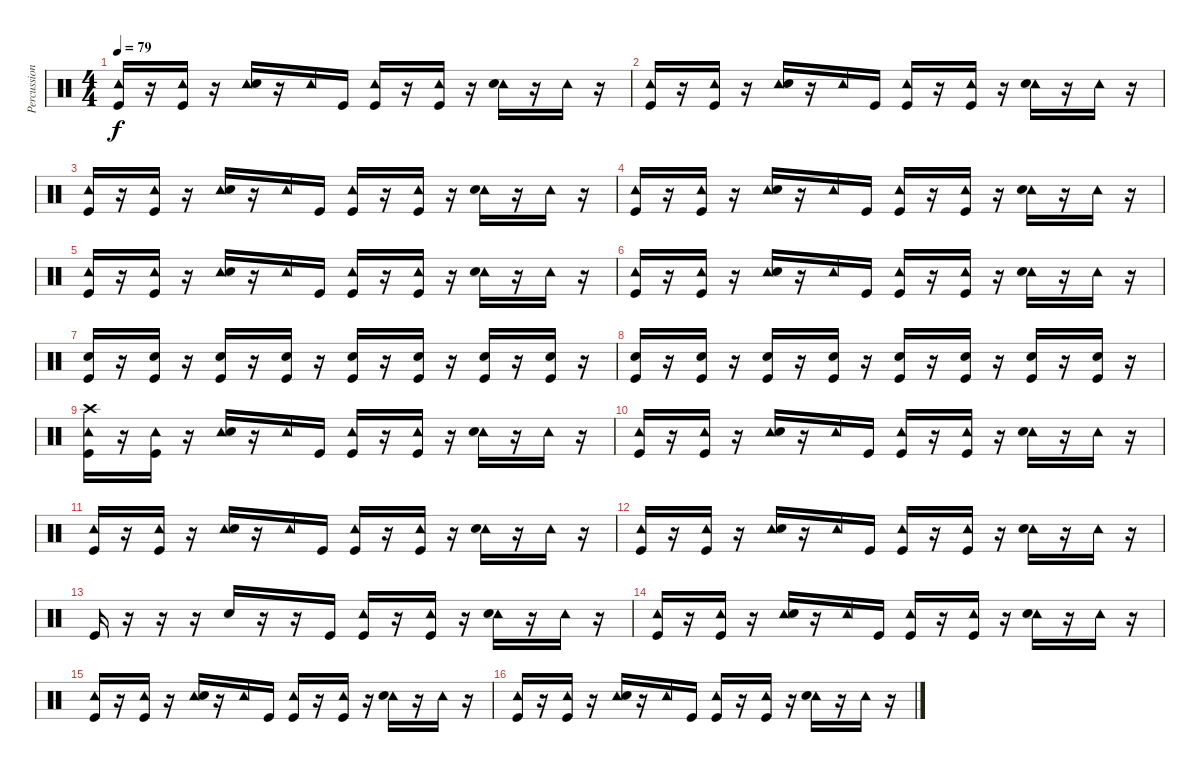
\track ("Percussions" "Percussion") {instrument percussion}
\staff {score}
\articulation defaults
\ts (4 4)
\tempo 79
\clef neutral
\ks c
("Tambourine (hit)" "Kick (hit)").16{dy f} r.16 ("Tambourine (hit)" "Kick (hit)").16 r.16 ("Tambourine (hit)" "Electric Snare (hit)").16 r.16 "Tambourine (hit)".16 "Kick (hit)".16 ("Tambourine (hit)" "Kick (hit)").16 r.16 ("Tambourine (hit)" "Kick (hit)").16 r.16 ("Tambourine (hit)" "Electric Snare (hit)").16 r.16 "Tambourine (hit)".16 r.16 |
("Tambourine (hit)" "Kick (hit)").16 r.16 ("Tambourine (hit)" "Kick (hit)").16 r.16 ("Tambourine (hit)" "Electric Snare (hit)").16 r.16 "Tambourine (hit)".16 "Kick (hit)".16 ("Tambourine (hit)" "Kick (hit)").16 r.16 ("Tambourine (hit)" "Kick (hit)").16 r.16 ("Tambourine (hit)" "Electric Snare (hit)").16 r.16 "Tambourine (hit)".16 r.16 |
("Tambourine (hit)" "Kick (hit)").16 r.16 ("Tambourine (hit)" "Kick (hit)").16 r.16 ("Tambourine (hit)" "Electric Snare (hit)").16 r.16 "Tambourine (hit)".16 "Kick (hit)".16 ("Tambourine (hit)" "Kick (hit)").16 r.16 ("Tambourine (hit)" "Kick (hit)").16 r.16 ("Tambourine (hit)" "Electric Snare (hit)").16 r.16 "Tambourine (hit)".16 r.16 |
("Tambourine (hit)" "Kick (hit)").16 r.16 ("Tambourine (hit)" "Kick (hit)").16 r.16 ("Tambourine (hit)" "Electric Snare (hit)").16 r.16 "Tambourine (hit)".16 "Kick (hit)".16 ("Tambourine (hit)" "Kick (hit)").16 r.16 ("Tambourine (hit)" "Kick (hit)").16 r.16 ("Tambourine (hit)" "Electric Snare (hit)").16 r.16 "Tambourine (hit)".16 r.16 |
("Tambourine (hit)" "Kick (hit)").16 r.16 ("Tambourine (hit)" "Kick (hit)").16 r.16 ("Tambourine (hit)" "Electric Snare (hit)").16 r.16 "Tambourine (hit)".16 "Kick (hit)".16 ("Tambourine (hit)" "Kick (hit)").16 r.16 ("Tambourine (hit)" "Kick (hit)").16 r.16 ("Tambourine (hit)" "Electric Snare (hit)").16 r.16 "Tambourine (hit)".16 r.16 |
("Tambourine (hit)" "Kick (hit)").16 r.16 ("Tambourine (hit)" "Kick (hit)").16 r.16 ("Tambourine (hit)" "Electric Snare (hit)").16 r.16 "Tambourine (hit)".16 "Kick (hit)".16 ("Tambourine (hit)" "Kick (hit)").16 r.16 ("Tambourine (hit)" "Kick (hit)").16 r.16 ("Tambourine (hit)" "Electric Snare (hit)").16 r.16 "Tambourine (hit)".16 r.16 |
("Electric Snare (hit)" "Kick (hit)").16 r.16 ("Electric Snare (hit)" "Kick (hit)").16 r.16 ("Electric Snare (hit)" "Kick (hit)").16 r.16 ("Electric Snare (hit)" "Kick (hit)").16 r.16 ("Electric Snare (hit)" "Kick (hit)").16 r.16 ("Electric Snare (hit)" "Kick (hit)").16 r.16 ("Electric Snare (hit)" "Kick (hit)").16 r.16 ("Electric Snare (hit)" "Kick (hit)").16 r.16 |
("Electric Snare (hit)" "Kick (hit)").16 r.16 ("Electric Snare (hit)" "Kick (hit)").16 r.16 ("Electric Snare (hit)" "Kick (hit)").16 r.16 ("Electric Snare (hit)" "Kick (hit)").16 r.16 ("Electric Snare (hit)" "Kick (hit)").16 r.16 ("Electric Snare (hit)" "Kick (hit)").16 r.16 ("Electric Snare (hit)" "Kick (hit)").16 r.16 ("Electric Snare (hit)" "Kick (hit)").16 r.16 |
("Tambourine (hit)" "Crash high (hit)" "Kick (hit)").16 r.16 ("Tambourine (hit)" "Kick (hit)").16 r.16 ("Tambourine (hit)" "Electric Snare (hit)").16 r.16 "Tambourine (hit)".16 "Kick (hit)".16 ("Tambourine (hit)" "Kick (hit)").16 r.16 ("Tambourine (hit)" "Kick (hit)").16 r.16 ("Tambourine (hit)" "Electric Snare (hit)").16 r.16 "Tambourine (hit)".16 r.16 |
("Tambourine (hit)" "Kick (hit)").16 r.16 ("Tambourine (hit)" "Kick (hit)").16 r.16 ("Tambourine (hit)" "Electric Snare (hit)").16 r.16 "Tambourine (hit)".16 "Kick (hit)".16 ("Tambourine (hit)" "Kick (hit)").16 r.16 ("Tambourine (hit)" "Kick (hit)").16 r.16 ("Tambourine (hit)" "Electric Snare (hit)").16 r.16 "Tambourine (hit)".16 r.16 |
("Tambourine (hit)" "Kick (hit)").16 r.16 ("Tambourine (hit)" "Kick (hit)").16 r.16 ("Tambourine (hit)" "Electric Snare (hit)").16 r.16 "Tambourine (hit)".16 "Kick (hit)".16 ("Tambourine (hit)" "Kick (hit)").16 r.16 ("Tambourine (hit)" "Kick (hit)").16 r.16 ("Tambourine (hit)" "Electric Snare (hit)").16 r.16 "Tambourine (hit)".16 r.16 |
("Tambourine (hit)" "Kick (hit)").16 r.16 ("Tambourine (hit)" "Kick (hit)").16 r.16 ("Tambourine (hit)" "Electric Snare (hit)").16 r.16 "Tambourine (hit)".16 "Kick (hit)".16 ("Tambourine (hit)" "Kick (hit)").16 r.16 ("Tambourine (hit)" "Kick (hit)").16 r.16 ("Tambourine (hit)" "Electric Snare (hit)").16 r.16 "Tambourine (hit)".16 r.16 |
"Kick (hit)".16 r.16 r.16 r.16 "Electric Snare (hit)".16 r.16 r.16 "Kick (hit)".16 ("Tambourine (hit)" "Kick (hit)").16 r.16 ("Tambourine (hit)" "Kick (hit)").16 r.16 ("Tambourine (hit)" "Electric Snare (hit)").16 r.16 "Tambourine (hit)".16 r.16 |
("Tambourine (hit)" "Kick (hit)").16 r.16 ("Tambourine (hit)" "Kick (hit)").16 r.16 ("Tambourine (hit)" "Electric Snare (hit)").16 r.16 "Tambourine (hit)".16 "Kick (hit)".16 ("Tambourine (hit)" "Kick (hit)").16 r.16 ("Tambourine (hit)" "Kick (hit)").16 r.16 ("Tambourine (hit)" "Electric Snare (hit)").16 r.16 "Tambourine (hit)".16 r.16 |
("Tambourine (hit)" "Kick (hit)").16 r.16 ("Tambourine (hit)" "Kick (hit)").16 r.16 ("Tambourine (hit)" "Electric Snare (hit)").16 r.16 "Tambourine (hit)".16 "Kick (hit)".16 ("Tambourine (hit)" "Kick (hit)").16 r.16 ("Tambourine (hit)" "Kick (hit)").16 r.16 ("Tambourine (hit)" "Electric Snare (hit)").16 r.16 "Tambourine (hit)".16 r.16 |
("Tambourine (hit)" "Kick (hit)").16 r.16 ("Tambourine (hit)" "Kick (hit)").16 r.16 ("Tambourine (hit)" "Electric Snare (hit)").16 r.16 "Tambourine (hit)".16 "Kick (hit)".16 ("Tambourine (hit)" "Kick (hit)").16 r.16 ("Tambourine (hit)" "Kick (hit)").16 r.16 ("Tambourine (hit)" "Electric Snare (hit)").16 r.16 "Tambourine (hit)".16 r.16
